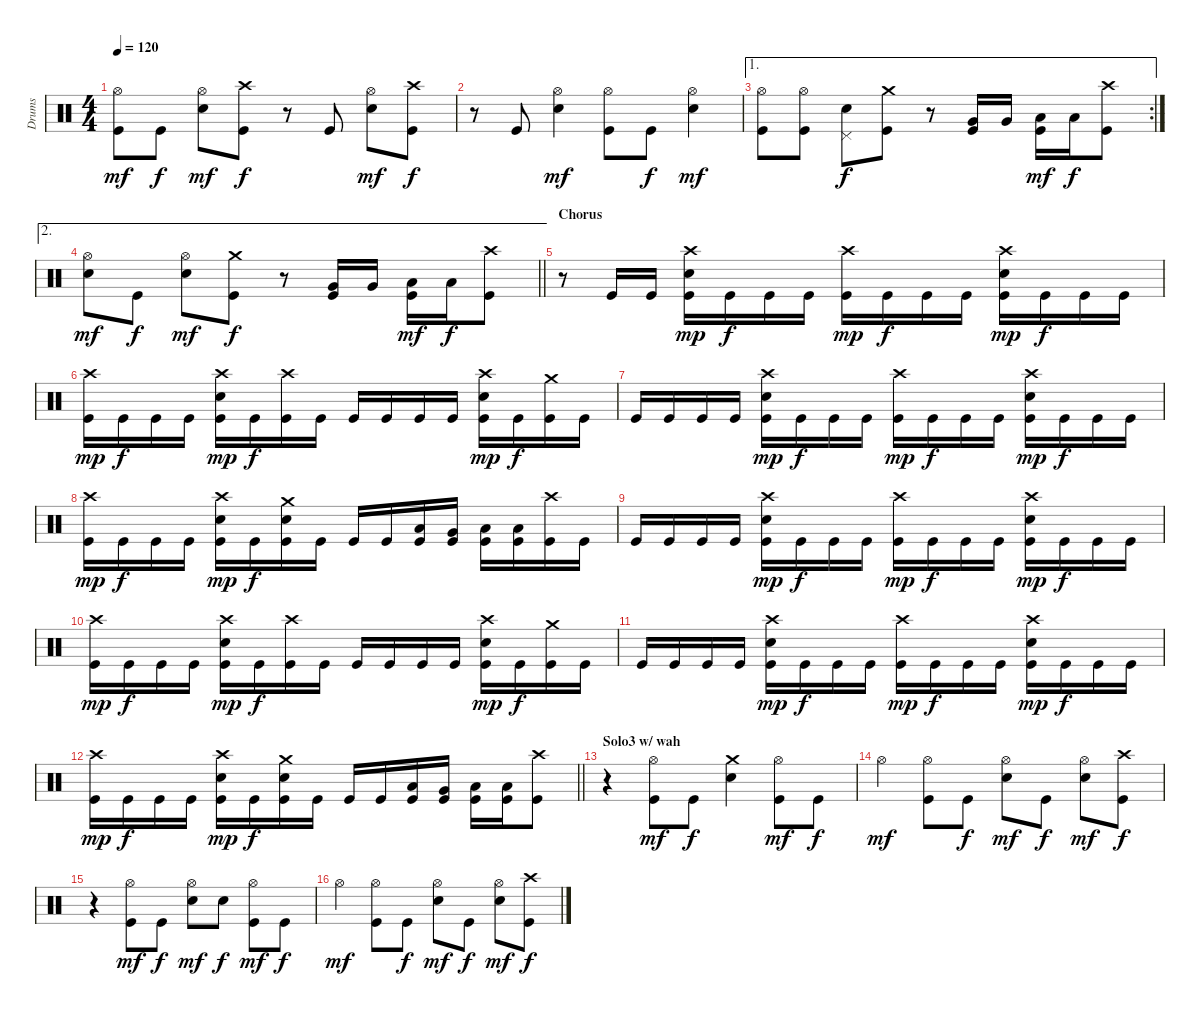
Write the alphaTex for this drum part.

\track ("Drums" "Drums") {instrument percussion}
\staff {score}
\articulation defaults
\ts (4 4)
\tempo 120
\clef neutral
\ks c
("Hi-Hat (open)" "Kick (hit)").8{dy mf} "Kick (hit)".8{dy f} ("Hi-Hat (open)" "Snare (hit) 2").8{dy mf} ("Crash high (hit)" "Kick (hit)").8{dy f} r.8 "Kick (hit)".8 ("Hi-Hat (open)" "Snare (hit) 2").8{dy mf} ("Crash high (hit)" "Kick (hit)").8{dy f} |
r.8 "Kick (hit)".8 ("Hi-Hat (open)" "Snare (hit) 2").4{dy mf} ("Hi-Hat (open)" "Kick (hit)").8 "Kick (hit)".8{dy f} ("Hi-Hat (open)" "Snare (hit) 2").4{dy mf} |
\ae 1
\rc 2
("Hi-Hat (open)" "Kick (hit)").8 ("Hi-Hat (open)" "Kick (hit)").8 ("Snare (hit) 2" "Pedal Hi-Hat (hit)").8{dy f} ("Crash medium (hit)" "Kick (hit)").8 r.8 ("Very Low Tom (hit)" "Kick (hit)").16 "Very Low Tom (hit)".16 ("Low Floor Tom (hit)" "Kick (hit)").16{dy mf} "Low Floor Tom (hit)".16{dy f} ("Crash high (hit)" "Kick (hit)").8 |
\ae 2
\barLineRight lightlight
("Hi-Hat (open)" "Snare (hit) 2").8{dy mf} "Kick (hit)".8{dy f} ("Hi-Hat (open)" "Snare (hit) 2").8{dy mf} ("Crash medium (hit)" "Kick (hit)").8{dy f} r.8 ("Very Low Tom (hit)" "Kick (hit)").16 "Very Low Tom (hit)".16 ("Low Floor Tom (hit)" "Kick (hit)").16{dy mf} "Low Floor Tom (hit)".16{dy f} ("Crash high (hit)" "Kick (hit)").8 |
\section ("" "Chorus")
r.8 "Kick (hit)".16 "Kick (hit)".16 ("Crash high (hit)" "Snare (hit) 2" "Kick (hit)").16{dy mp} "Kick (hit)".16{dy f} "Kick (hit)".16 "Kick (hit)".16 ("Crash high (hit)" "Kick (hit)").16{dy mp} "Kick (hit)".16{dy f} "Kick (hit)".16 "Kick (hit)".16 ("Crash high (hit)" "Snare (hit) 2" "Kick (hit)").16{dy mp} "Kick (hit)".16{dy f} "Kick (hit)".16 "Kick (hit)".16 |
("Crash high (hit)" "Kick (hit)").16{dy mp} "Kick (hit)".16{dy f} "Kick (hit)".16 "Kick (hit)".16 ("Crash high (hit)" "Snare (hit) 2" "Kick (hit)").16{dy mp} "Kick (hit)".16{dy f} ("Crash high (hit)" "Kick (hit)").16 "Kick (hit)".16 "Kick (hit)".16 "Kick (hit)".16 "Kick (hit)".16 "Kick (hit)".16 ("Crash high (hit)" "Snare (hit) 2" "Kick (hit)").16{dy mp} "Kick (hit)".16{dy f} ("Crash medium (hit)" "Kick (hit)").16 "Kick (hit)".16 |
"Kick (hit)".16 "Kick (hit)".16 "Kick (hit)".16 "Kick (hit)".16 ("Crash high (hit)" "Snare (hit) 2" "Kick (hit)").16{dy mp} "Kick (hit)".16{dy f} "Kick (hit)".16 "Kick (hit)".16 ("Crash high (hit)" "Kick (hit)").16{dy mp} "Kick (hit)".16{dy f} "Kick (hit)".16 "Kick (hit)".16 ("Crash high (hit)" "Snare (hit) 2" "Kick (hit)").16{dy mp} "Kick (hit)".16{dy f} "Kick (hit)".16 "Kick (hit)".16 |
("Crash high (hit)" "Kick (hit)").16{dy mp} "Kick (hit)".16{dy f} "Kick (hit)".16 "Kick (hit)".16 ("Crash high (hit)" "Snare (hit) 2" "Kick (hit)").16{dy mp} "Kick (hit)".16{dy f} ("Crash medium (hit)" "Snare (hit) 2" "Kick (hit)").16 "Kick (hit)".16 "Kick (hit)".16 "Kick (hit)".16 ("Low Tom (hit)" "Kick (hit)").16 ("Very Low Tom (hit)" "Kick (hit)").16 ("Low Floor Tom (hit)" "Kick (hit)").16 ("Low Floor Tom (hit)" "Kick (hit)").16 ("Crash high (hit)" "Kick (hit)").16 "Kick (hit)".16 |
"Kick (hit)".16 "Kick (hit)".16 "Kick (hit)".16 "Kick (hit)".16 ("Crash high (hit)" "Snare (hit) 2" "Kick (hit)").16{dy mp} "Kick (hit)".16{dy f} "Kick (hit)".16 "Kick (hit)".16 ("Crash high (hit)" "Kick (hit)").16{dy mp} "Kick (hit)".16{dy f} "Kick (hit)".16 "Kick (hit)".16 ("Crash high (hit)" "Snare (hit) 2" "Kick (hit)").16{dy mp} "Kick (hit)".16{dy f} "Kick (hit)".16 "Kick (hit)".16 |
("Crash high (hit)" "Kick (hit)").16{dy mp} "Kick (hit)".16{dy f} "Kick (hit)".16 "Kick (hit)".16 ("Crash high (hit)" "Snare (hit) 2" "Kick (hit)").16{dy mp} "Kick (hit)".16{dy f} ("Crash high (hit)" "Kick (hit)").16 "Kick (hit)".16 "Kick (hit)".16 "Kick (hit)".16 "Kick (hit)".16 "Kick (hit)".16 ("Crash high (hit)" "Snare (hit) 2" "Kick (hit)").16{dy mp} "Kick (hit)".16{dy f} ("Crash medium (hit)" "Kick (hit)").16 "Kick (hit)".16 |
"Kick (hit)".16 "Kick (hit)".16 "Kick (hit)".16 "Kick (hit)".16 ("Crash high (hit)" "Snare (hit) 2" "Kick (hit)").16{dy mp} "Kick (hit)".16{dy f} "Kick (hit)".16 "Kick (hit)".16 ("Crash high (hit)" "Kick (hit)").16{dy mp} "Kick (hit)".16{dy f} "Kick (hit)".16 "Kick (hit)".16 ("Crash high (hit)" "Snare (hit) 2" "Kick (hit)").16{dy mp} "Kick (hit)".16{dy f} "Kick (hit)".16 "Kick (hit)".16 |
\barLineRight lightlight
("Crash high (hit)" "Kick (hit)").16{dy mp} "Kick (hit)".16{dy f} "Kick (hit)".16 "Kick (hit)".16 ("Crash high (hit)" "Snare (hit) 2" "Kick (hit)").16{dy mp} "Kick (hit)".16{dy f} ("Crash medium (hit)" "Snare (hit) 2" "Kick (hit)").16 "Kick (hit)".16 "Kick (hit)".16 "Kick (hit)".16 ("Low Tom (hit)" "Kick (hit)").16 ("Very Low Tom (hit)" "Kick (hit)").16 ("Low Floor Tom (hit)" "Kick (hit)").16 ("Low Floor Tom (hit)" "Kick (hit)").16 ("Crash high (hit)" "Kick (hit)").8 |
\section ("" "Solo3 w/ wah")
r.4 ("Hi-Hat (open)" "Kick (hit)").8{dy mf} "Kick (hit)".8{dy f} ("Crash medium (hit)" "Snare (hit) 2").4 ("Hi-Hat (open)" "Kick (hit)").8{dy mf} "Kick (hit)".8{dy f} |
"Hi-Hat (open)".4{dy mf} ("Hi-Hat (open)" "Kick (hit)").8 "Kick (hit)".8{dy f} ("Hi-Hat (open)" "Snare (hit) 2").8{dy mf} "Kick (hit)".8{dy f} ("Hi-Hat (open)" "Snare (hit) 2").8{dy mf} ("Crash high (hit)" "Kick (hit)").8{dy f} |
r.4 ("Hi-Hat (open)" "Kick (hit)").8{dy mf} "Kick (hit)".8{dy f} ("Hi-Hat (open)" "Snare (hit) 2").8{dy mf} "Snare (hit) 2".8{dy f} ("Hi-Hat (open)" "Kick (hit)").8{dy mf} "Kick (hit)".8{dy f} |
"Hi-Hat (open)".4{dy mf} ("Hi-Hat (open)" "Kick (hit)").8 "Kick (hit)".8{dy f} ("Hi-Hat (open)" "Snare (hit) 2").8{dy mf} "Kick (hit)".8{dy f} ("Hi-Hat (open)" "Snare (hit) 2").8{dy mf} ("Crash high (hit)" "Kick (hit)").8{dy f}
